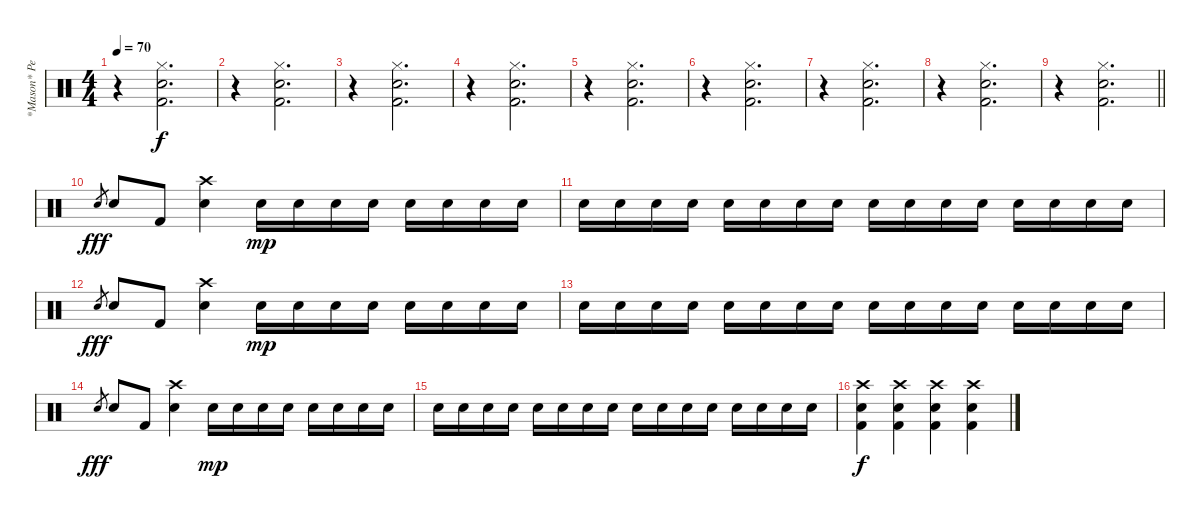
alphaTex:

\track ("*Mason* Percussion" "*Mason* Pe") {instrument percussion}
\staff {score}
\articulation defaults
\ts (4 4)
\tempo 70
\clef neutral
\ks c
r.4{dy f} ("Hi-Hat (closed)" "Snare (hit) 2" "Kick (hit) 2").2{d} |
r.4 ("Hi-Hat (closed)" "Snare (hit) 2" "Kick (hit) 2").2{d} |
r.4 ("Hi-Hat (closed)" "Snare (hit) 2" "Kick (hit) 2").2{d} |
r.4 ("Hi-Hat (closed)" "Snare (hit) 2" "Kick (hit) 2").2{d} |
r.4 ("Hi-Hat (closed)" "Snare (hit) 2" "Kick (hit) 2").2{d} |
r.4 ("Hi-Hat (closed)" "Snare (hit) 2" "Kick (hit) 2").2{d} |
r.4 ("Hi-Hat (closed)" "Snare (hit) 2" "Kick (hit) 2").2{d} |
r.4 ("Hi-Hat (closed)" "Snare (hit) 2" "Kick (hit) 2").2{d} |
\barLineRight lightlight
r.4 ("Hi-Hat (closed)" "Snare (hit) 2" "Kick (hit) 2").2{d} |
"Snare (hit) 2".8{gr dy fff} "Snare (hit) 2".8 "Kick (hit) 2".8 ("Crash high (hit)" "Snare (hit) 2").4 "Snare (hit) 2".16{dy mp} "Snare (hit) 2".16 "Snare (hit) 2".16 "Snare (hit) 2".16 "Snare (hit) 2".16 "Snare (hit) 2".16 "Snare (hit) 2".16 "Snare (hit) 2".16 |
"Snare (hit) 2".16 "Snare (hit) 2".16 "Snare (hit) 2".16 "Snare (hit) 2".16 "Snare (hit) 2".16 "Snare (hit) 2".16 "Snare (hit) 2".16 "Snare (hit) 2".16 "Snare (hit) 2".16 "Snare (hit) 2".16 "Snare (hit) 2".16 "Snare (hit) 2".16 "Snare (hit) 2".16 "Snare (hit) 2".16 "Snare (hit) 2".16 "Snare (hit) 2".16 |
"Snare (hit) 2".8{gr dy fff} "Snare (hit) 2".8 "Kick (hit) 2".8 ("Crash high (hit)" "Snare (hit) 2").4 "Snare (hit) 2".16{dy mp} "Snare (hit) 2".16 "Snare (hit) 2".16 "Snare (hit) 2".16 "Snare (hit) 2".16 "Snare (hit) 2".16 "Snare (hit) 2".16 "Snare (hit) 2".16 |
"Snare (hit) 2".16 "Snare (hit) 2".16 "Snare (hit) 2".16 "Snare (hit) 2".16 "Snare (hit) 2".16 "Snare (hit) 2".16 "Snare (hit) 2".16 "Snare (hit) 2".16 "Snare (hit) 2".16 "Snare (hit) 2".16 "Snare (hit) 2".16 "Snare (hit) 2".16 "Snare (hit) 2".16 "Snare (hit) 2".16 "Snare (hit) 2".16 "Snare (hit) 2".16 |
"Snare (hit) 2".8{gr dy fff} "Snare (hit) 2".8 "Kick (hit) 2".8 ("Crash high (hit)" "Snare (hit) 2").4 "Snare (hit) 2".16{dy mp} "Snare (hit) 2".16 "Snare (hit) 2".16 "Snare (hit) 2".16 "Snare (hit) 2".16 "Snare (hit) 2".16 "Snare (hit) 2".16 "Snare (hit) 2".16 |
"Snare (hit) 2".16 "Snare (hit) 2".16 "Snare (hit) 2".16 "Snare (hit) 2".16 "Snare (hit) 2".16 "Snare (hit) 2".16 "Snare (hit) 2".16 "Snare (hit) 2".16 "Snare (hit) 2".16 "Snare (hit) 2".16 "Snare (hit) 2".16 "Snare (hit) 2".16 "Snare (hit) 2".16 "Snare (hit) 2".16 "Snare (hit) 2".16 "Snare (hit) 2".16 |
("Crash high (hit)" "Snare (hit) 2" "Kick (hit) 2").4{dy f} ("Crash high (hit)" "Snare (hit) 2" "Kick (hit) 2").4 ("Crash high (hit)" "Snare (hit) 2" "Kick (hit) 2").4 ("Crash high (hit)" "Snare (hit) 2" "Kick (hit) 2").4
